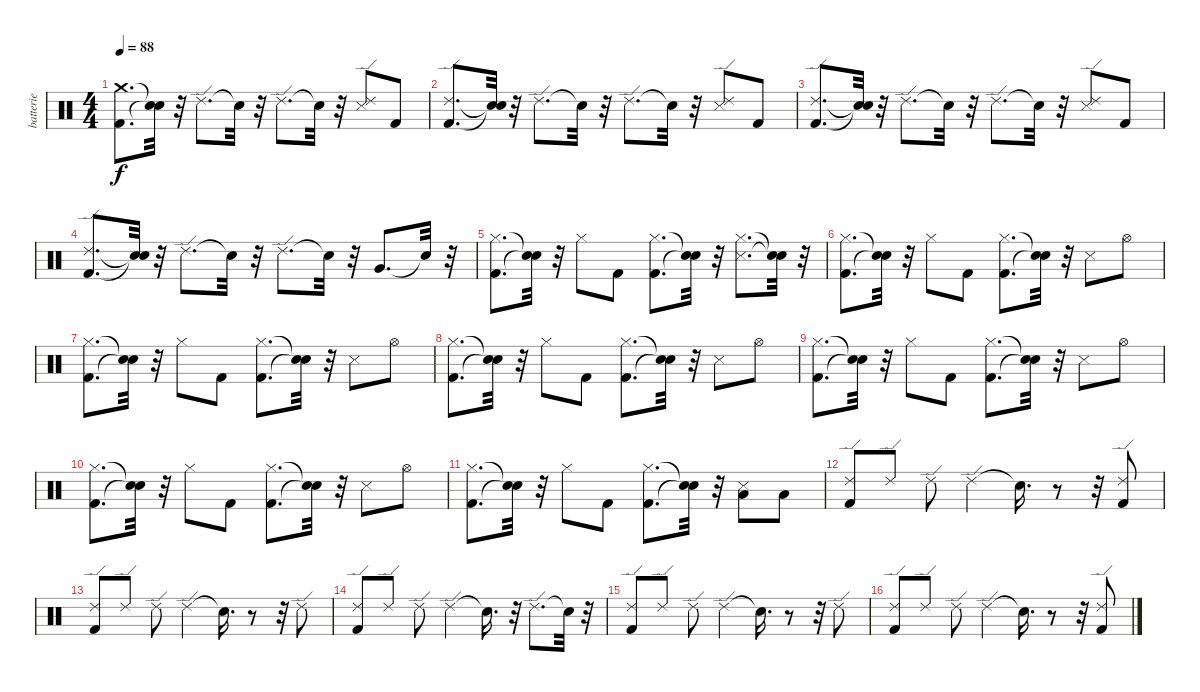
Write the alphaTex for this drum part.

\track ("batterie" "batterie") {instrument percussion}
\staff {score}
\articulation defaults
\ts (4 4)
\tempo 88
\clef neutral
\ks c
("Kick (hit) 2" "Crash medium (hit)").8{d dy f} ("Snare (hit)"{t} "Snare (hit)"{t}).32 r.32 "Ride (edge) 2".8{d} "Snare (hit)"{t}.32 r.32 "Ride (edge) 2".8{d} "Snare (hit)"{t}.32 r.32 ("Snare (side stick) 3" "Ride (edge) 2").8 "Kick (hit) 2".8 |
("Kick (hit) 2" "Ride (edge) 2").8{d} ("Snare (hit)"{t} "Snare (hit)"{t}).32 r.32 "Ride (edge) 2".8{d} "Snare (hit)"{t}.32 r.32 "Ride (edge) 2".8{d} "Snare (hit)"{t}.32 r.32 ("Snare (side stick) 3" "Ride (edge) 2").8 "Kick (hit) 2".8 |
("Kick (hit) 2" "Ride (edge) 2").8{d} ("Snare (hit)"{t} "Snare (hit)"{t}).32 r.32 "Ride (edge) 2".8{d} "Snare (hit)"{t}.32 r.32 "Ride (edge) 2".8{d} "Snare (hit)"{t}.32 r.32 ("Snare (side stick) 3" "Ride (edge) 2").8 "Kick (hit) 2".8 |
("Kick (hit) 2" "Ride (edge) 2").8{d} ("Snare (hit)"{t} "Snare (hit)"{t}).32 r.32 "Ride (edge) 2".8{d} "Snare (hit)"{t}.32 r.32 "Ride (edge) 2".8{d} "Snare (hit)"{t}.32 r.32 "Very Low Tom (hit)".8{d} "Snare (hit)"{t}.32 r.32 |
("Kick (hit) 2" "Hi-Hat (closed)").8{d} ("Snare (hit)"{t} "Snare (hit)"{t}).32 r.32 "Hi-Hat (closed)".8 "Kick (hit) 2".8 ("Kick (hit) 2" "Hi-Hat (closed)").8{d} ("Snare (hit)"{t} "Snare (hit)"{t}).32 r.32 ("Snare (side stick) 3" "Hi-Hat (closed)").8{d} ("Snare (hit)"{t} "Snare (hit)"{t}).32 r.32 |
("Kick (hit) 2" "Hi-Hat (closed)").8{d} ("Snare (hit)"{t} "Snare (hit)"{t}).32 r.32 "Hi-Hat (closed)".8 "Kick (hit) 2".8 ("Kick (hit) 2" "Hi-Hat (closed)").8{d} ("Snare (hit)"{t} "Snare (hit)"{t}).32 r.32 "Snare (side stick) 3".8 "Hi-Hat (open)".8 |
("Kick (hit) 2" "Hi-Hat (closed)").8{d} ("Snare (hit)"{t} "Snare (hit)"{t}).32 r.32 "Hi-Hat (closed)".8 "Kick (hit) 2".8 ("Kick (hit) 2" "Hi-Hat (closed)").8{d} ("Snare (hit)"{t} "Snare (hit)"{t}).32 r.32 "Snare (side stick) 3".8 "Hi-Hat (open)".8 |
("Kick (hit) 2" "Hi-Hat (closed)").8{d} ("Snare (hit)"{t} "Snare (hit)"{t}).32 r.32 "Hi-Hat (closed)".8 "Kick (hit) 2".8 ("Kick (hit) 2" "Hi-Hat (closed)").8{d} ("Snare (hit)"{t} "Snare (hit)"{t}).32 r.32 "Snare (side stick) 3".8 "Hi-Hat (open)".8 |
("Kick (hit) 2" "Hi-Hat (closed)").8{d} ("Snare (hit)"{t} "Snare (hit)"{t}).32 r.32 "Hi-Hat (closed)".8 "Kick (hit) 2".8 ("Kick (hit) 2" "Hi-Hat (closed)").8{d} ("Snare (hit)"{t} "Snare (hit)"{t}).32 r.32 "Snare (side stick) 3".8 "Hi-Hat (open)".8 |
("Kick (hit) 2" "Hi-Hat (closed)").8{d} ("Snare (hit)"{t} "Snare (hit)"{t}).32 r.32 "Hi-Hat (closed)".8 "Kick (hit) 2".8 ("Kick (hit) 2" "Hi-Hat (closed)").8{d} ("Snare (hit)"{t} "Snare (hit)"{t}).32 r.32 "Snare (side stick) 3".8 "Hi-Hat (open)".8 |
("Kick (hit) 2" "Hi-Hat (closed)").8{d} ("Snare (hit)"{t} "Snare (hit)"{t}).32 r.32 "Hi-Hat (closed)".8 "Kick (hit) 2".8 ("Kick (hit) 2" "Hi-Hat (closed)").8{d} ("Snare (hit)"{t} "Snare (hit)"{t}).32 r.32 ("Snare (side stick) 3" "Low Tom (hit)").8 "Low Floor Tom (hit)".8 |
("Kick (hit) 2" "Ride (edge) 2").8 "Ride (edge) 2".8 "Ride (edge) 2".8 "Ride (edge) 2".4 "Snare (hit)"{t}.16{d} r.8 r.32 ("Kick (hit) 2" "Ride (edge) 2").8 |
("Kick (hit) 2" "Ride (edge) 2").8 "Ride (edge) 2".8 "Ride (edge) 2".8 "Ride (edge) 2".4 "Snare (hit)"{t}.16{d} r.8 r.32 "Ride (edge) 2".8 |
("Kick (hit) 2" "Ride (edge) 2").8 "Ride (edge) 2".8 "Ride (edge) 2".8 "Ride (edge) 2".4 "Snare (hit)"{t}.16{d} r.32 "Ride (edge) 2".8{d} "Snare (hit)"{t}.32 r.32 |
("Kick (hit) 2" "Ride (edge) 2").8 "Ride (edge) 2".8 "Ride (edge) 2".8 "Ride (edge) 2".4 "Snare (hit)"{t}.16{d} r.8 r.32 "Ride (edge) 2".8 |
("Kick (hit) 2" "Ride (edge) 2").8 "Ride (edge) 2".8 "Ride (edge) 2".8 "Ride (edge) 2".4 "Snare (hit)"{t}.16{d} r.8 r.32 ("Kick (hit) 2" "Ride (edge) 2").8
